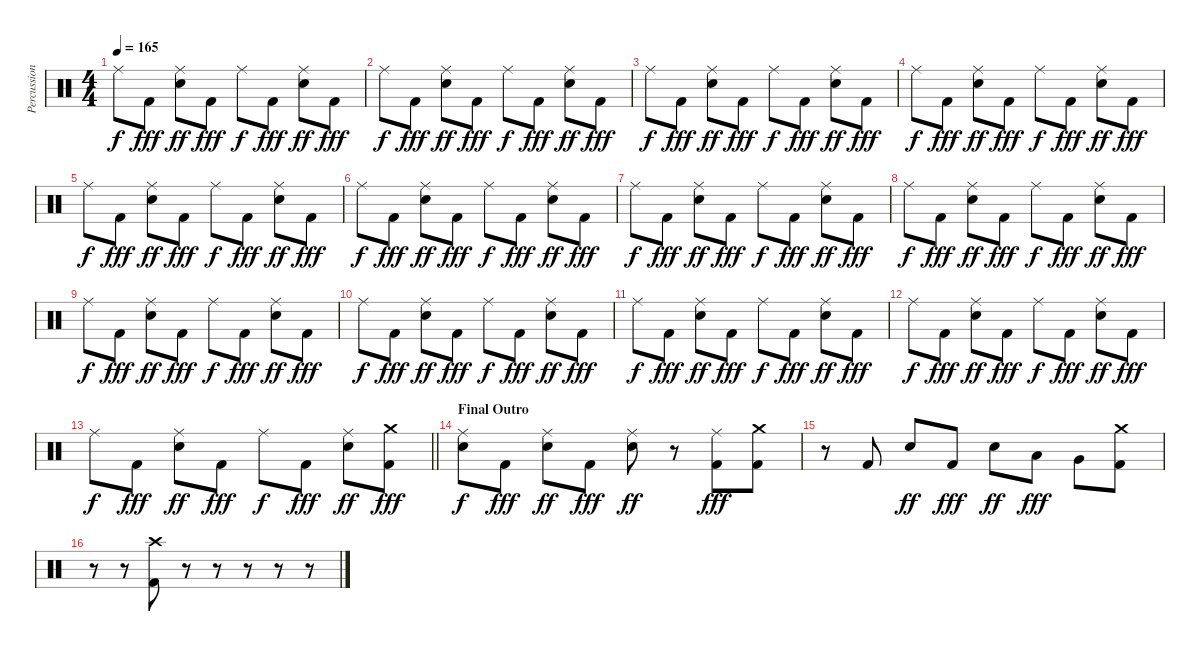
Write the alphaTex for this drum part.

\track ("Percussion" "Percussion") {instrument percussion}
\staff {score}
\articulation defaults
\ts (4 4)
\tempo 165
\clef neutral
\ks c "Ride (middle)".8{dy f} "Kick (hit) 2".8{dy fff}
("Ride (middle)" "Electric Snare (hit)").8{dy ff} "Kick (hit) 2".8{dy fff} "Ride (middle)".8{dy f} "Kick (hit) 2".8{dy fff} ("Ride (middle)" "Electric Snare (hit)").8{dy ff} "Kick (hit) 2".8{dy fff} |
"Ride (middle)".8{dy f} "Kick (hit) 2".8{dy fff} ("Ride (middle)" "Electric Snare (hit)").8{dy ff} "Kick (hit) 2".8{dy fff} "Ride (middle)".8{dy f} "Kick (hit) 2".8{dy fff} ("Ride (middle)" "Electric Snare (hit)").8{dy ff} "Kick (hit) 2".8{dy fff} |
"Ride (middle)".8{dy f} "Kick (hit) 2".8{dy fff} ("Ride (middle)" "Electric Snare (hit)").8{dy ff} "Kick (hit) 2".8{dy fff} "Ride (middle)".8{dy f} "Kick (hit) 2".8{dy fff} ("Ride (middle)" "Electric Snare (hit)").8{dy ff} "Kick (hit) 2".8{dy fff} |
"Ride (middle)".8{dy f} "Kick (hit) 2".8{dy fff} ("Ride (middle)" "Electric Snare (hit)").8{dy ff} "Kick (hit) 2".8{dy fff} "Ride (middle)".8{dy f} "Kick (hit) 2".8{dy fff} ("Ride (middle)" "Electric Snare (hit)").8{dy ff} "Kick (hit) 2".8{dy fff} |
"Ride (middle)".8{dy f} "Kick (hit) 2".8{dy fff} ("Ride (middle)" "Electric Snare (hit)").8{dy ff} "Kick (hit) 2".8{dy fff} "Ride (middle)".8{dy f} "Kick (hit) 2".8{dy fff} ("Ride (middle)" "Electric Snare (hit)").8{dy ff} "Kick (hit) 2".8{dy fff} |
"Ride (middle)".8{dy f} "Kick (hit) 2".8{dy fff} ("Ride (middle)" "Electric Snare (hit)").8{dy ff} "Kick (hit) 2".8{dy fff} "Ride (middle)".8{dy f} "Kick (hit) 2".8{dy fff} ("Ride (middle)" "Electric Snare (hit)").8{dy ff} "Kick (hit) 2".8{dy fff} |
"Ride (middle)".8{dy f} "Kick (hit) 2".8{dy fff} ("Ride (middle)" "Electric Snare (hit)").8{dy ff} "Kick (hit) 2".8{dy fff} "Ride (middle)".8{dy f} "Kick (hit) 2".8{dy fff} ("Ride (middle)" "Electric Snare (hit)").8{dy ff} "Kick (hit) 2".8{dy fff} |
"Ride (middle)".8{dy f} "Kick (hit) 2".8{dy fff} ("Ride (middle)" "Electric Snare (hit)").8{dy ff} "Kick (hit) 2".8{dy fff} "Ride (middle)".8{dy f} "Kick (hit) 2".8{dy fff} ("Ride (middle)" "Electric Snare (hit)").8{dy ff} "Kick (hit) 2".8{dy fff} |
"Ride (middle)".8{dy f} "Kick (hit) 2".8{dy fff} ("Ride (middle)" "Electric Snare (hit)").8{dy ff} "Kick (hit) 2".8{dy fff} "Ride (middle)".8{dy f} "Kick (hit) 2".8{dy fff} ("Ride (middle)" "Electric Snare (hit)").8{dy ff} "Kick (hit) 2".8{dy fff} |
"Ride (middle)".8{dy f} "Kick (hit) 2".8{dy fff} ("Ride (middle)" "Electric Snare (hit)").8{dy ff} "Kick (hit) 2".8{dy fff} "Ride (middle)".8{dy f} "Kick (hit) 2".8{dy fff} ("Ride (middle)" "Electric Snare (hit)").8{dy ff} "Kick (hit) 2".8{dy fff} |
"Ride (middle)".8{dy f} "Kick (hit) 2".8{dy fff} ("Ride (middle)" "Electric Snare (hit)").8{dy ff} "Kick (hit) 2".8{dy fff} "Ride (middle)".8{dy f} "Kick (hit) 2".8{dy fff} ("Ride (middle)" "Electric Snare (hit)").8{dy ff} "Kick (hit) 2".8{dy fff} |
"Ride (middle)".8{dy f} "Kick (hit) 2".8{dy fff} ("Ride (middle)" "Electric Snare (hit)").8{dy ff} "Kick (hit) 2".8{dy fff} "Ride (middle)".8{dy f} "Kick (hit) 2".8{dy fff} ("Ride (middle)" "Electric Snare (hit)").8{dy ff} "Kick (hit) 2".8{dy fff} |
\barLineRight lightlight "Ride (middle)".8{dy f} "Kick (hit) 2".8{dy fff}
("Ride (middle)" "Electric Snare (hit)").8{dy ff} "Kick (hit) 2".8{dy fff} "Ride (middle)".8{dy f} "Kick (hit) 2".8{dy fff} ("Ride (middle)" "Electric Snare (hit)").8{dy ff} ("Crash medium (hit)" "Kick (hit) 2").8{dy fff} |
\section ("" "Final Outro")
("Ride (middle)" "Snare (hit)").8{dy f} "Kick (hit) 2".8{dy fff} ("Ride (middle)" "Electric Snare (hit)").8{dy ff} "Kick (hit) 2".8{dy fff} ("Ride (middle)" "Electric Snare (hit)").8{dy ff} r.8 ("Ride (middle)" "Kick (hit) 2").8{dy fff} ("Crash medium (hit)" "Kick (hit) 2").8 |
r.8 "Kick (hit) 2".8 "Electric Snare (hit)".8{dy ff} "Kick (hit) 2".8{dy fff} "Electric Snare (hit)".8{dy ff} "Low Tom (hit)".8{dy fff} "Very Low Tom (hit)".8 ("Crash medium (hit)" "Kick (hit) 2").8 |
r.8 r.8 ("Crash high (hit)" "Kick (hit) 2").8 r.8 r.8 r.8 r.8 r.8
